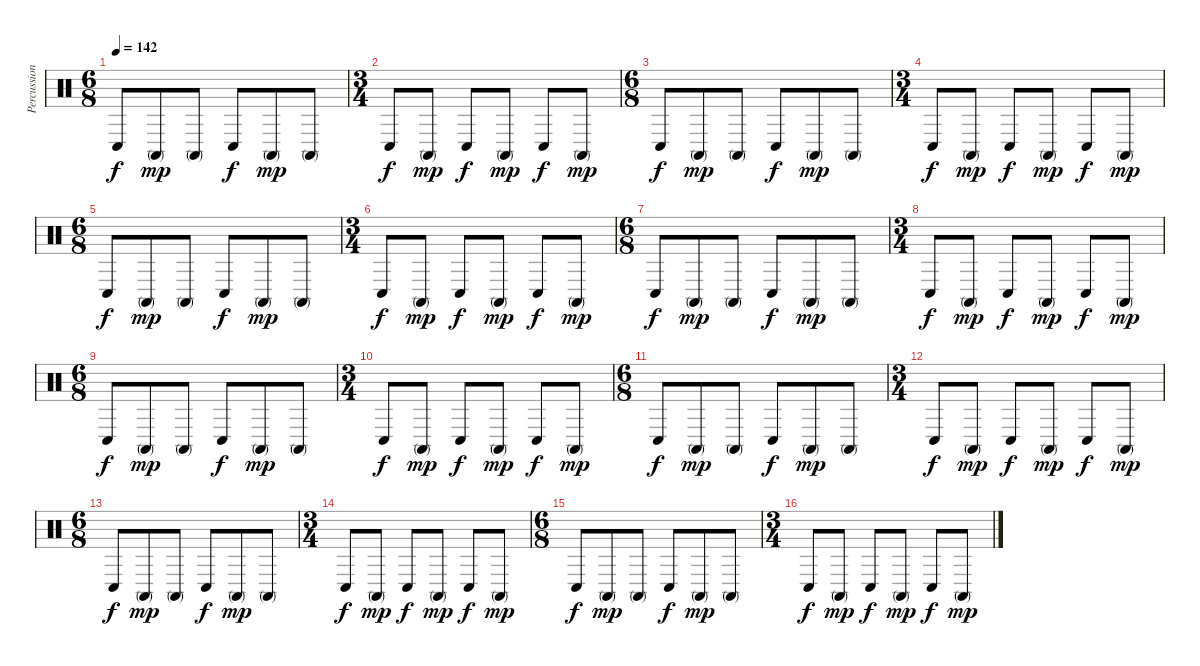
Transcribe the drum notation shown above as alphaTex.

\track ("Percussion" "Percussion") {instrument percussion}
\staff {score}
\articulation defaults
\ts (6 8)
\tempo 142
\clef neutral
\ks c "Conga low (hit)".8{dy f} "Conga high (mute)".8{dy mp} "Conga high (mute)".8 "Conga low (hit)".8{dy f} "Conga high (mute)".8{dy mp} "Conga high (mute)".8
|
\ts (3 4)
"Conga low (hit)".8{dy f} "Conga high (mute)".8{dy mp} "Conga low (hit)".8{dy f} "Conga high (mute)".8{dy mp} "Conga low (hit)".8{dy f} "Conga high (mute)".8{dy mp} |
\ts (6 8)
"Conga low (hit)".8{dy f} "Conga high (mute)".8{dy mp} "Conga high (mute)".8 "Conga low (hit)".8{dy f} "Conga high (mute)".8{dy mp} "Conga high (mute)".8 |
\ts (3 4)
"Conga low (hit)".8{dy f} "Conga high (mute)".8{dy mp} "Conga low (hit)".8{dy f} "Conga high (mute)".8{dy mp} "Conga low (hit)".8{dy f} "Conga high (mute)".8{dy mp} |
\ts (6 8)
"Conga low (hit)".8{dy f} "Conga high (mute)".8{dy mp} "Conga high (mute)".8 "Conga low (hit)".8{dy f} "Conga high (mute)".8{dy mp} "Conga high (mute)".8 |
\ts (3 4)
"Conga low (hit)".8{dy f} "Conga high (mute)".8{dy mp} "Conga low (hit)".8{dy f} "Conga high (mute)".8{dy mp} "Conga low (hit)".8{dy f} "Conga high (mute)".8{dy mp} |
\ts (6 8)
"Conga low (hit)".8{dy f} "Conga high (mute)".8{dy mp} "Conga high (mute)".8 "Conga low (hit)".8{dy f} "Conga high (mute)".8{dy mp} "Conga high (mute)".8 |
\ts (3 4)
"Conga low (hit)".8{dy f} "Conga high (mute)".8{dy mp} "Conga low (hit)".8{dy f} "Conga high (mute)".8{dy mp} "Conga low (hit)".8{dy f} "Conga high (mute)".8{dy mp} |
\ts (6 8)
"Conga low (hit)".8{dy f} "Conga high (mute)".8{dy mp} "Conga high (mute)".8 "Conga low (hit)".8{dy f} "Conga high (mute)".8{dy mp} "Conga high (mute)".8 |
\ts (3 4)
"Conga low (hit)".8{dy f} "Conga high (mute)".8{dy mp} "Conga low (hit)".8{dy f} "Conga high (mute)".8{dy mp} "Conga low (hit)".8{dy f} "Conga high (mute)".8{dy mp} |
\ts (6 8)
"Conga low (hit)".8{dy f} "Conga high (mute)".8{dy mp} "Conga high (mute)".8 "Conga low (hit)".8{dy f} "Conga high (mute)".8{dy mp} "Conga high (mute)".8 |
\ts (3 4)
"Conga low (hit)".8{dy f} "Conga high (mute)".8{dy mp} "Conga low (hit)".8{dy f} "Conga high (mute)".8{dy mp} "Conga low (hit)".8{dy f} "Conga high (mute)".8{dy mp} |
\ts (6 8)
"Conga low (hit)".8{dy f} "Conga high (mute)".8{dy mp} "Conga high (mute)".8 "Conga low (hit)".8{dy f} "Conga high (mute)".8{dy mp} "Conga high (mute)".8 |
\ts (3 4)
"Conga low (hit)".8{dy f} "Conga high (mute)".8{dy mp} "Conga low (hit)".8{dy f} "Conga high (mute)".8{dy mp} "Conga low (hit)".8{dy f} "Conga high (mute)".8{dy mp} |
\ts (6 8)
"Conga low (hit)".8{dy f} "Conga high (mute)".8{dy mp} "Conga high (mute)".8 "Conga low (hit)".8{dy f} "Conga high (mute)".8{dy mp} "Conga high (mute)".8 |
\ts (3 4)
"Conga low (hit)".8{dy f} "Conga high (mute)".8{dy mp} "Conga low (hit)".8{dy f} "Conga high (mute)".8{dy mp} "Conga low (hit)".8{dy f} "Conga high (mute)".8{dy mp}
